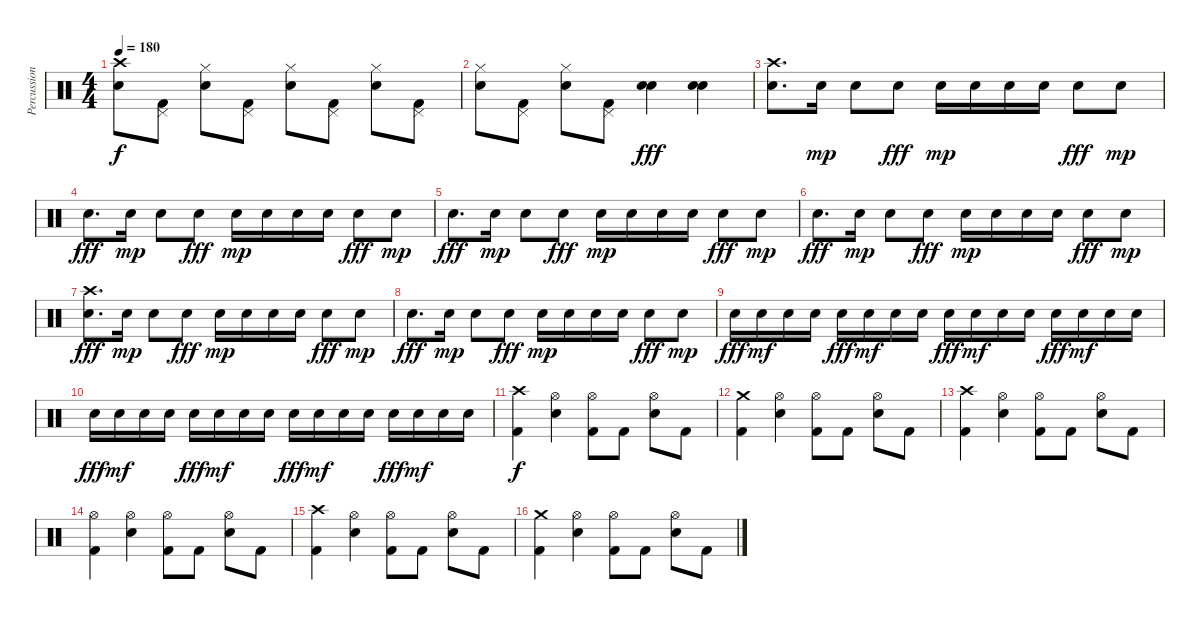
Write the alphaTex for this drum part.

\track ("Percussion" "Percussion") {instrument percussion}
\staff {score}
\articulation defaults
\ts (4 4)
\tempo 180
\clef neutral
\ks c
("Crash high (hit)" "Snare (hit) 2").8{dy f} ("Pedal Hi-Hat (hit)" "Kick (hit) 2").8 ("Hi-Hat (closed)" "Snare (hit) 2").8 ("Pedal Hi-Hat (hit)" "Kick (hit) 2").8 ("Hi-Hat (closed)" "Snare (hit) 2").8 ("Pedal Hi-Hat (hit)" "Kick (hit) 2").8 ("Hi-Hat (closed)" "Snare (hit) 2").8 ("Pedal Hi-Hat (hit)" "Kick (hit) 2").8 |
("Hi-Hat (closed)" "Snare (hit) 2").8 ("Pedal Hi-Hat (hit)" "Kick (hit) 2").8 ("Hi-Hat (closed)" "Snare (hit) 2").8 ("Pedal Hi-Hat (hit)" "Kick (hit) 2").8 ("Snare (hit) 2" "Electric Snare (hit)").4{dy fff} ("Snare (hit) 2" "Electric Snare (hit)").4 |
("Crash high (hit)" "Electric Snare (hit)").8{d} "Electric Snare (hit)".16{dy mp} "Electric Snare (hit)".8 "Electric Snare (hit)".8{dy fff} "Electric Snare (hit)".16{dy mp} "Electric Snare (hit)".16 "Electric Snare (hit)".16 "Electric Snare (hit)".16 "Electric Snare (hit)".8{dy fff} "Electric Snare (hit)".8{dy mp} |
"Electric Snare (hit)".8{d dy fff} "Electric Snare (hit)".16{dy mp} "Electric Snare (hit)".8 "Electric Snare (hit)".8{dy fff} "Electric Snare (hit)".16{dy mp} "Electric Snare (hit)".16 "Electric Snare (hit)".16 "Electric Snare (hit)".16 "Electric Snare (hit)".8{dy fff} "Electric Snare (hit)".8{dy mp} |
"Electric Snare (hit)".8{d dy fff} "Electric Snare (hit)".16{dy mp} "Electric Snare (hit)".8 "Electric Snare (hit)".8{dy fff} "Electric Snare (hit)".16{dy mp} "Electric Snare (hit)".16 "Electric Snare (hit)".16 "Electric Snare (hit)".16 "Electric Snare (hit)".8{dy fff} "Electric Snare (hit)".8{dy mp} |
"Electric Snare (hit)".8{d dy fff} "Electric Snare (hit)".16{dy mp} "Electric Snare (hit)".8 "Electric Snare (hit)".8{dy fff} "Electric Snare (hit)".16{dy mp} "Electric Snare (hit)".16 "Electric Snare (hit)".16 "Electric Snare (hit)".16 "Electric Snare (hit)".8{dy fff} "Electric Snare (hit)".8{dy mp} |
("Crash high (hit)" "Electric Snare (hit)").8{d dy fff} "Electric Snare (hit)".16{dy mp} "Electric Snare (hit)".8 "Electric Snare (hit)".8{dy fff} "Electric Snare (hit)".16{dy mp} "Electric Snare (hit)".16 "Electric Snare (hit)".16 "Electric Snare (hit)".16 "Electric Snare (hit)".8{dy fff} "Electric Snare (hit)".8{dy mp} |
"Electric Snare (hit)".8{d dy fff} "Electric Snare (hit)".16{dy mp} "Electric Snare (hit)".8 "Electric Snare (hit)".8{dy fff} "Electric Snare (hit)".16{dy mp} "Electric Snare (hit)".16 "Electric Snare (hit)".16 "Electric Snare (hit)".16 "Electric Snare (hit)".8{dy fff} "Electric Snare (hit)".8{dy mp} |
"Electric Snare (hit)".16{dy fff volume 16} "Electric Snare (hit)".16{dy mf} "Electric Snare (hit)".16 "Electric Snare (hit)".16 "Electric Snare (hit)".16{dy fff} "Electric Snare (hit)".16{dy mf} "Electric Snare (hit)".16 "Electric Snare (hit)".16 "Electric Snare (hit)".16{dy fff} "Electric Snare (hit)".16{dy mf} "Electric Snare (hit)".16 "Electric Snare (hit)".16 "Electric Snare (hit)".16{dy fff} "Electric Snare (hit)".16{dy mf} "Electric Snare (hit)".16 "Electric Snare (hit)".16 |
"Electric Snare (hit)".16{dy fff} "Electric Snare (hit)".16{dy mf} "Electric Snare (hit)".16 "Electric Snare (hit)".16 "Electric Snare (hit)".16{dy fff} "Electric Snare (hit)".16{dy mf} "Electric Snare (hit)".16 "Electric Snare (hit)".16 "Electric Snare (hit)".16{dy fff} "Electric Snare (hit)".16{dy mf} "Electric Snare (hit)".16 "Electric Snare (hit)".16 "Electric Snare (hit)".16{dy fff} "Electric Snare (hit)".16{dy mf} "Electric Snare (hit)".16 "Electric Snare (hit)".16 |
("Crash high (hit)" "Kick (hit) 2").4{dy f volume 13} ("Hi-Hat (open)" "Electric Snare (hit)").4 ("Hi-Hat (open)" "Kick (hit) 2").8 "Kick (hit) 2".8 ("Hi-Hat (open)" "Electric Snare (hit)").8 "Kick (hit) 2".8 |
("Crash medium (hit)" "Kick (hit) 2").4 ("Hi-Hat (open)" "Electric Snare (hit)").4 ("Hi-Hat (open)" "Kick (hit) 2").8 "Kick (hit) 2".8 ("Hi-Hat (open)" "Electric Snare (hit)").8 "Kick (hit) 2".8 |
("Crash high (hit)" "Kick (hit) 2").4 ("Hi-Hat (open)" "Electric Snare (hit)").4 ("Hi-Hat (open)" "Kick (hit) 2").8 "Kick (hit) 2".8 ("Hi-Hat (open)" "Electric Snare (hit)").8 "Kick (hit) 2".8 |
("Hi-Hat (open)" "Kick (hit) 2").4 ("Hi-Hat (open)" "Electric Snare (hit)").4 ("Hi-Hat (open)" "Kick (hit) 2").8 "Kick (hit) 2".8 ("Hi-Hat (open)" "Electric Snare (hit)").8 "Kick (hit) 2".8 |
("Crash high (hit)" "Kick (hit) 2").4 ("Hi-Hat (open)" "Electric Snare (hit)").4 ("Hi-Hat (open)" "Kick (hit) 2").8 "Kick (hit) 2".8 ("Hi-Hat (open)" "Electric Snare (hit)").8 "Kick (hit) 2".8 |
("Crash medium (hit)" "Kick (hit) 2").4 ("Hi-Hat (open)" "Electric Snare (hit)").4 ("Hi-Hat (open)" "Kick (hit) 2").8 "Kick (hit) 2".8 ("Hi-Hat (open)" "Electric Snare (hit)").8 "Kick (hit) 2".8
